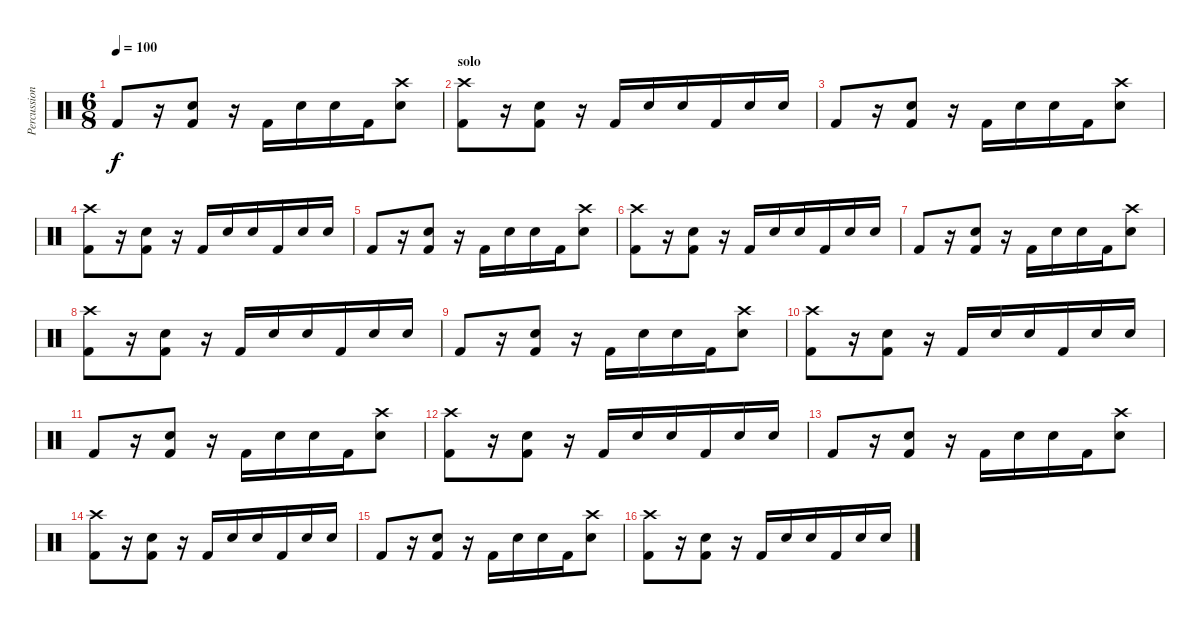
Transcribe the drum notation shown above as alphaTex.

\track ("Percussion" "Percussion") {instrument percussion}
\staff {score}
\articulation defaults
\ts (6 8)
\tempo 100
\clef neutral
\ks c "Kick (hit) 2".8{dy f}
r.16 ("Snare (hit) 2" "Kick (hit) 2").8 r.16 "Kick (hit) 2".16 "Snare (hit) 2".16 "Snare (hit) 2".16 "Kick (hit) 2".16 ("Crash high (hit)" "Snare (hit) 2").8 |
\section ("" "solo")
("Crash high (hit)" "Kick (hit) 2").8 r.16 ("Snare (hit) 2" "Kick (hit) 2").8 r.16 "Kick (hit) 2".16 "Snare (hit) 2".16 "Snare (hit) 2".16 "Kick (hit) 2".16 "Snare (hit) 2".16 "Snare (hit) 2".16 |
"Kick (hit) 2".8 r.16 ("Snare (hit) 2" "Kick (hit) 2").8 r.16 "Kick (hit) 2".16 "Snare (hit) 2".16 "Snare (hit) 2".16 "Kick (hit) 2".16 ("Crash high (hit)" "Snare (hit) 2").8 |
("Crash high (hit)" "Kick (hit) 2").8 r.16 ("Snare (hit) 2" "Kick (hit) 2").8 r.16 "Kick (hit) 2".16 "Snare (hit) 2".16 "Snare (hit) 2".16 "Kick (hit) 2".16 "Snare (hit) 2".16 "Snare (hit) 2".16 |
"Kick (hit) 2".8 r.16 ("Snare (hit) 2" "Kick (hit) 2").8 r.16 "Kick (hit) 2".16 "Snare (hit) 2".16 "Snare (hit) 2".16 "Kick (hit) 2".16 ("Crash high (hit)" "Snare (hit) 2").8 |
("Crash high (hit)" "Kick (hit) 2").8 r.16 ("Snare (hit) 2" "Kick (hit) 2").8 r.16 "Kick (hit) 2".16 "Snare (hit) 2".16 "Snare (hit) 2".16 "Kick (hit) 2".16 "Snare (hit) 2".16 "Snare (hit) 2".16 |
"Kick (hit) 2".8 r.16 ("Snare (hit) 2" "Kick (hit) 2").8 r.16 "Kick (hit) 2".16 "Snare (hit) 2".16 "Snare (hit) 2".16 "Kick (hit) 2".16 ("Crash high (hit)" "Snare (hit) 2").8 |
("Crash high (hit)" "Kick (hit) 2").8 r.16 ("Snare (hit) 2" "Kick (hit) 2").8 r.16 "Kick (hit) 2".16 "Snare (hit) 2".16 "Snare (hit) 2".16 "Kick (hit) 2".16 "Snare (hit) 2".16 "Snare (hit) 2".16 |
"Kick (hit) 2".8 r.16 ("Snare (hit) 2" "Kick (hit) 2").8 r.16 "Kick (hit) 2".16 "Snare (hit) 2".16 "Snare (hit) 2".16 "Kick (hit) 2".16 ("Crash high (hit)" "Snare (hit) 2").8 |
("Crash high (hit)" "Kick (hit) 2").8 r.16 ("Snare (hit) 2" "Kick (hit) 2").8 r.16 "Kick (hit) 2".16 "Snare (hit) 2".16 "Snare (hit) 2".16 "Kick (hit) 2".16 "Snare (hit) 2".16 "Snare (hit) 2".16 |
"Kick (hit) 2".8 r.16 ("Snare (hit) 2" "Kick (hit) 2").8 r.16 "Kick (hit) 2".16 "Snare (hit) 2".16 "Snare (hit) 2".16 "Kick (hit) 2".16 ("Crash high (hit)" "Snare (hit) 2").8 |
("Crash high (hit)" "Kick (hit) 2").8 r.16 ("Snare (hit) 2" "Kick (hit) 2").8 r.16 "Kick (hit) 2".16 "Snare (hit) 2".16 "Snare (hit) 2".16 "Kick (hit) 2".16 "Snare (hit) 2".16 "Snare (hit) 2".16 |
"Kick (hit) 2".8 r.16 ("Snare (hit) 2" "Kick (hit) 2").8 r.16 "Kick (hit) 2".16 "Snare (hit) 2".16 "Snare (hit) 2".16 "Kick (hit) 2".16 ("Crash high (hit)" "Snare (hit) 2").8 |
("Crash high (hit)" "Kick (hit) 2").8 r.16 ("Snare (hit) 2" "Kick (hit) 2").8 r.16 "Kick (hit) 2".16 "Snare (hit) 2".16 "Snare (hit) 2".16 "Kick (hit) 2".16 "Snare (hit) 2".16 "Snare (hit) 2".16 |
"Kick (hit) 2".8 r.16 ("Snare (hit) 2" "Kick (hit) 2").8 r.16 "Kick (hit) 2".16 "Snare (hit) 2".16 "Snare (hit) 2".16 "Kick (hit) 2".16 ("Crash high (hit)" "Snare (hit) 2").8 |
("Crash high (hit)" "Kick (hit) 2").8 r.16 ("Snare (hit) 2" "Kick (hit) 2").8 r.16 "Kick (hit) 2".16 "Snare (hit) 2".16 "Snare (hit) 2".16 "Kick (hit) 2".16 "Snare (hit) 2".16 "Snare (hit) 2".16
